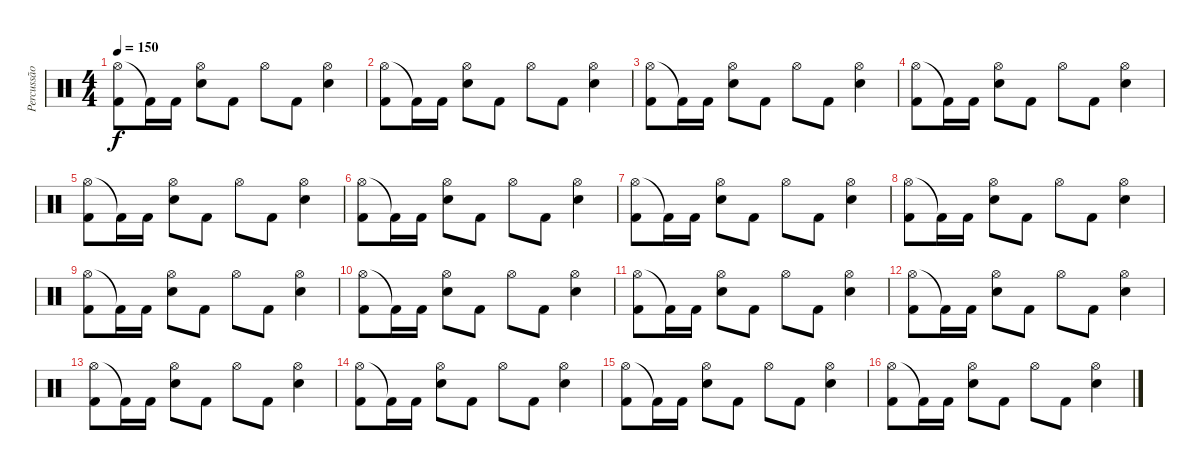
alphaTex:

\track ("Percussão" "Percussão") {instrument percussion}
\staff {score}
\articulation defaults
\ts (4 4)
\tempo 150
\clef neutral
\ks c
("Hi-Hat (open)" "Kick (hit) 2").8{dy f} "Kick (hit) 2"{t}.16 "Kick (hit) 2".16 ("Hi-Hat (open)" "Electric Snare (hit)").8 "Kick (hit) 2".8 "Hi-Hat (open)".8 "Kick (hit) 2".8 ("Hi-Hat (open)" "Electric Snare (hit)").4 |
("Hi-Hat (open)" "Kick (hit) 2").8 "Kick (hit) 2"{t}.16 "Kick (hit) 2".16 ("Hi-Hat (open)" "Electric Snare (hit)").8 "Kick (hit) 2".8 "Hi-Hat (open)".8 "Kick (hit) 2".8 ("Hi-Hat (open)" "Electric Snare (hit)").4 |
("Hi-Hat (open)" "Kick (hit) 2").8 "Kick (hit) 2"{t}.16 "Kick (hit) 2".16 ("Hi-Hat (open)" "Electric Snare (hit)").8 "Kick (hit) 2".8 "Hi-Hat (open)".8 "Kick (hit) 2".8 ("Hi-Hat (open)" "Electric Snare (hit)").4 |
("Hi-Hat (open)" "Kick (hit) 2").8 "Kick (hit) 2"{t}.16 "Kick (hit) 2".16 ("Hi-Hat (open)" "Electric Snare (hit)").8 "Kick (hit) 2".8 "Hi-Hat (open)".8 "Kick (hit) 2".8 ("Hi-Hat (open)" "Electric Snare (hit)").4 |
("Hi-Hat (open)" "Kick (hit) 2").8 "Kick (hit) 2"{t}.16 "Kick (hit) 2".16 ("Hi-Hat (open)" "Electric Snare (hit)").8 "Kick (hit) 2".8 "Hi-Hat (open)".8 "Kick (hit) 2".8 ("Hi-Hat (open)" "Electric Snare (hit)").4 |
("Hi-Hat (open)" "Kick (hit) 2").8 "Kick (hit) 2"{t}.16 "Kick (hit) 2".16 ("Hi-Hat (open)" "Electric Snare (hit)").8 "Kick (hit) 2".8 "Hi-Hat (open)".8 "Kick (hit) 2".8 ("Hi-Hat (open)" "Electric Snare (hit)").4 |
("Hi-Hat (open)" "Kick (hit) 2").8 "Kick (hit) 2"{t}.16 "Kick (hit) 2".16 ("Hi-Hat (open)" "Electric Snare (hit)").8 "Kick (hit) 2".8 "Hi-Hat (open)".8 "Kick (hit) 2".8 ("Hi-Hat (open)" "Electric Snare (hit)").4 |
("Hi-Hat (open)" "Kick (hit) 2").8 "Kick (hit) 2"{t}.16 "Kick (hit) 2".16 ("Hi-Hat (open)" "Electric Snare (hit)").8 "Kick (hit) 2".8 "Hi-Hat (open)".8 "Kick (hit) 2".8 ("Hi-Hat (open)" "Electric Snare (hit)").4 |
("Hi-Hat (open)" "Kick (hit) 2").8 "Kick (hit) 2"{t}.16 "Kick (hit) 2".16 ("Hi-Hat (open)" "Electric Snare (hit)").8 "Kick (hit) 2".8 "Hi-Hat (open)".8 "Kick (hit) 2".8 ("Hi-Hat (open)" "Electric Snare (hit)").4 |
("Hi-Hat (open)" "Kick (hit) 2").8 "Kick (hit) 2"{t}.16 "Kick (hit) 2".16 ("Hi-Hat (open)" "Electric Snare (hit)").8 "Kick (hit) 2".8 "Hi-Hat (open)".8 "Kick (hit) 2".8 ("Hi-Hat (open)" "Electric Snare (hit)").4 |
("Hi-Hat (open)" "Kick (hit) 2").8 "Kick (hit) 2"{t}.16 "Kick (hit) 2".16 ("Hi-Hat (open)" "Electric Snare (hit)").8 "Kick (hit) 2".8 "Hi-Hat (open)".8 "Kick (hit) 2".8 ("Hi-Hat (open)" "Electric Snare (hit)").4 |
("Hi-Hat (open)" "Kick (hit) 2").8 "Kick (hit) 2"{t}.16 "Kick (hit) 2".16 ("Hi-Hat (open)" "Electric Snare (hit)").8 "Kick (hit) 2".8 "Hi-Hat (open)".8 "Kick (hit) 2".8 ("Hi-Hat (open)" "Electric Snare (hit)").4 |
("Hi-Hat (open)" "Kick (hit) 2").8 "Kick (hit) 2"{t}.16 "Kick (hit) 2".16 ("Hi-Hat (open)" "Electric Snare (hit)").8 "Kick (hit) 2".8 "Hi-Hat (open)".8 "Kick (hit) 2".8 ("Hi-Hat (open)" "Electric Snare (hit)").4 |
("Hi-Hat (open)" "Kick (hit) 2").8 "Kick (hit) 2"{t}.16 "Kick (hit) 2".16 ("Hi-Hat (open)" "Electric Snare (hit)").8 "Kick (hit) 2".8 "Hi-Hat (open)".8 "Kick (hit) 2".8 ("Hi-Hat (open)" "Electric Snare (hit)").4 |
("Hi-Hat (open)" "Kick (hit) 2").8 "Kick (hit) 2"{t}.16 "Kick (hit) 2".16 ("Hi-Hat (open)" "Electric Snare (hit)").8 "Kick (hit) 2".8 "Hi-Hat (open)".8 "Kick (hit) 2".8 ("Hi-Hat (open)" "Electric Snare (hit)").4 |
("Hi-Hat (open)" "Kick (hit) 2").8 "Kick (hit) 2"{t}.16 "Kick (hit) 2".16 ("Hi-Hat (open)" "Electric Snare (hit)").8 "Kick (hit) 2".8 "Hi-Hat (open)".8 "Kick (hit) 2".8 ("Hi-Hat (open)" "Electric Snare (hit)").4
